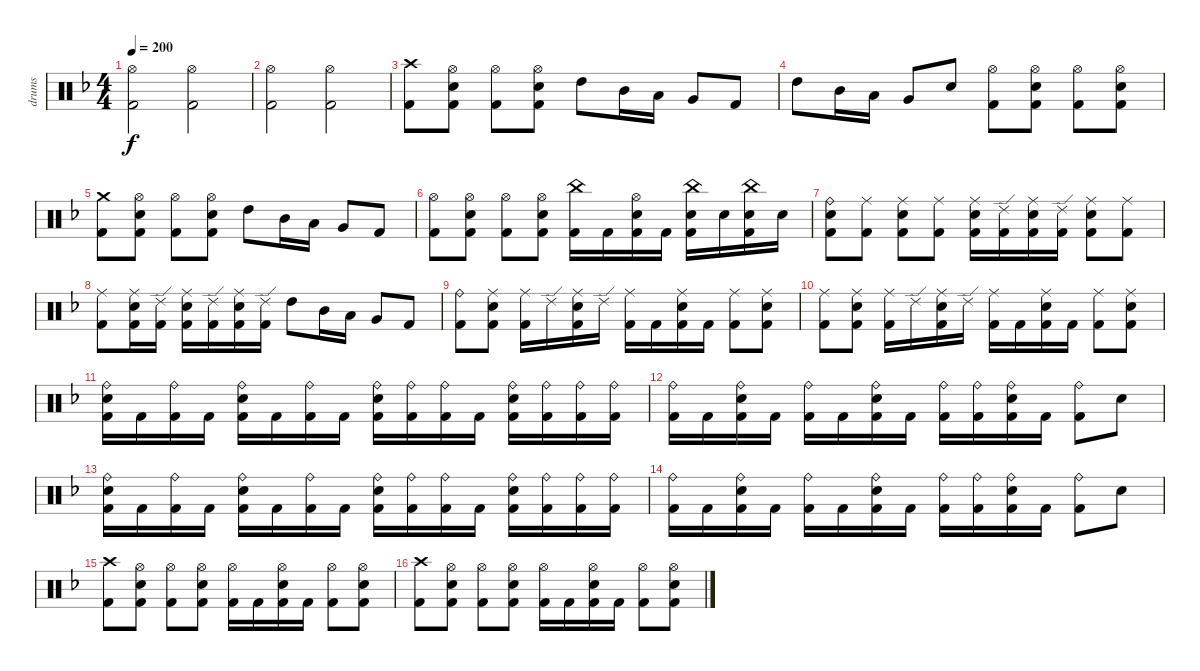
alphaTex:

\track ("drums" "drums") {instrument percussion}
\staff {score}
\articulation defaults
\ts (4 4)
\tempo 200
\clef neutral
\ks dminor
("Hi-Hat (open)" "Kick (hit) 2").2{dy f} ("Hi-Hat (open)" "Kick (hit) 2").2 |
("Hi-Hat (open)" "Kick (hit) 2").2 ("Hi-Hat (open)" "Kick (hit) 2").2 |
("Crash high (hit)" "Kick (hit) 2").8 ("Hi-Hat (open)" "Electric Snare (hit)" "Kick (hit) 2").8 ("Hi-Hat (open)" "Kick (hit) 2").8 ("Hi-Hat (open)" "Electric Snare (hit)" "Kick (hit) 2").8 "High Tom (hit)".8 "Mid Tom (hit)".16 "Low Tom (hit)".16 "Very Low Tom (hit)".8 "Kick (hit) 2".8 |
"High Tom (hit)".8 "Mid Tom (hit)".16 "Low Tom (hit)".16 "Very Low Tom (hit)".8 "Electric Snare (hit)".8 ("Hi-Hat (open)" "Kick (hit) 2").8 ("Hi-Hat (open)" "Electric Snare (hit)" "Kick (hit) 2").8 ("Hi-Hat (open)" "Kick (hit) 2").8 ("Hi-Hat (open)" "Electric Snare (hit)" "Kick (hit) 2").8 |
("Crash medium (hit)" "Kick (hit) 2").8 ("Hi-Hat (open)" "Electric Snare (hit)" "Kick (hit) 2").8 ("Hi-Hat (open)" "Kick (hit) 2").8 ("Hi-Hat (open)" "Electric Snare (hit)" "Kick (hit) 2").8 "High Tom (hit)".8 "Mid Tom (hit)".16 "Low Tom (hit)".16 "Very Low Tom (hit)".8 "Kick (hit) 2".8 |
("Hi-Hat (open)" "Kick (hit) 2").8 ("Hi-Hat (open)" "Electric Snare (hit)" "Kick (hit) 2").8 ("Hi-Hat (open)" "Kick (hit) 2").8 ("Hi-Hat (open)" "Electric Snare (hit)" "Kick (hit) 2").8 ("China (hit)" "Kick (hit) 2").16 "Kick (hit) 2".16 ("Hi-Hat (open)" "Electric Snare (hit)" "Kick (hit) 2").16 "Kick (hit) 2".16 ("China (hit)" "Electric Snare (hit)" "Kick (hit) 2").16 "Electric Snare (hit)".16 ("China (hit)" "Electric Snare (hit)" "Kick (hit) 2").16 "Electric Snare (hit)".16 |
("Ride (bell)" "Electric Snare (hit)" "Kick (hit) 2").8 ("Ride (middle)" "Kick (hit) 2").8 ("Ride (middle)" "Electric Snare (hit)" "Kick (hit) 2").8 ("Ride (middle)" "Kick (hit) 2").8 ("Ride (middle)" "Electric Snare (hit)" "Kick (hit) 2").16 ("Ride (edge) 2" "Kick (hit) 2").16 ("Ride (middle)" "Electric Snare (hit)" "Kick (hit) 2").16 ("Ride (edge) 2" "Kick (hit) 2").16 ("Ride (middle)" "Electric Snare (hit)" "Kick (hit) 2").8 ("Ride (middle)" "Kick (hit) 2").8 |
("Ride (middle)" "Kick (hit) 2").8 ("Ride (middle)" "Electric Snare (hit)" "Kick (hit) 2").16 ("Ride (edge) 2" "Kick (hit) 2").16 ("Ride (middle)" "Electric Snare (hit)" "Kick (hit) 2").16 ("Ride (edge) 2" "Kick (hit) 2").16 ("Ride (middle)" "Electric Snare (hit)" "Kick (hit) 2").16 ("Ride (edge) 2" "Kick (hit) 2").16 "High Tom (hit)".8 "Mid Tom (hit)".16 "Low Tom (hit)".16 "Very Low Tom (hit)".8 "Kick (hit) 2".8 |
("Ride (bell)" "Kick (hit) 2").8 ("Ride (middle)" "Electric Snare (hit)" "Kick (hit) 2").8 ("Ride (middle)" "Kick (hit) 2").16 "Ride (edge) 2".16 ("Ride (middle)" "Electric Snare (hit)" "Kick (hit) 2").16 "Ride (edge) 2".16 ("Ride (middle)" "Kick (hit) 2").16 "Kick (hit) 2".16 ("Ride (middle)" "Electric Snare (hit)" "Kick (hit) 2").16 "Kick (hit) 2".16 ("Ride (middle)" "Kick (hit) 2").8 ("Ride (middle)" "Electric Snare (hit)" "Kick (hit) 2").8 |
("Ride (middle)" "Kick (hit) 2").8 ("Ride (middle)" "Electric Snare (hit)" "Kick (hit) 2").8 ("Ride (middle)" "Kick (hit) 2").16 "Ride (edge) 2".16 ("Ride (middle)" "Electric Snare (hit)" "Kick (hit) 2").16 "Ride (edge) 2".16 ("Ride (middle)" "Kick (hit) 2").16 "Kick (hit) 2".16 ("Ride (middle)" "Electric Snare (hit)" "Kick (hit) 2").16 "Kick (hit) 2".16 ("Ride (middle)" "Kick (hit) 2").8 ("Ride (middle)" "Electric Snare (hit)" "Kick (hit) 2").8 |
("Ride (bell)" "Electric Snare (hit)" "Kick (hit) 2").16 "Kick (hit) 2".16 ("Ride (bell)" "Kick (hit) 2").16 "Kick (hit) 2".16 ("Ride (bell)" "Electric Snare (hit)" "Kick (hit) 2").16 "Kick (hit) 2".16 ("Ride (bell)" "Kick (hit) 2").16 "Kick (hit) 2".16 ("Ride (bell)" "Electric Snare (hit)" "Kick (hit) 2").16 ("Ride (bell)" "Kick (hit) 2").16 ("Ride (bell)" "Kick (hit) 2").16 "Kick (hit) 2".16 ("Ride (bell)" "Electric Snare (hit)" "Kick (hit) 2").16 ("Ride (bell)" "Kick (hit) 2").16 ("Ride (bell)" "Kick (hit) 2").16 ("Ride (bell)" "Kick (hit) 2").16 |
("Ride (bell)" "Kick (hit) 2").16 "Kick (hit) 2".16 ("Ride (bell)" "Electric Snare (hit)" "Kick (hit) 2").16 "Kick (hit) 2".16 ("Ride (bell)" "Kick (hit) 2").16 "Kick (hit) 2".16 ("Ride (bell)" "Electric Snare (hit)" "Kick (hit) 2").16 "Kick (hit) 2".16 ("Ride (bell)" "Kick (hit) 2").16 ("Ride (bell)" "Kick (hit) 2").16 ("Ride (bell)" "Electric Snare (hit)" "Kick (hit) 2").16 "Kick (hit) 2".16 ("Ride (bell)" "Kick (hit) 2").8 "Electric Snare (hit)".8 |
("Ride (bell)" "Electric Snare (hit)" "Kick (hit) 2").16 "Kick (hit) 2".16 ("Ride (bell)" "Kick (hit) 2").16 "Kick (hit) 2".16 ("Ride (bell)" "Electric Snare (hit)" "Kick (hit) 2").16 "Kick (hit) 2".16 ("Ride (bell)" "Kick (hit) 2").16 "Kick (hit) 2".16 ("Ride (bell)" "Electric Snare (hit)" "Kick (hit) 2").16 ("Ride (bell)" "Kick (hit) 2").16 ("Ride (bell)" "Kick (hit) 2").16 "Kick (hit) 2".16 ("Ride (bell)" "Electric Snare (hit)" "Kick (hit) 2").16 ("Ride (bell)" "Kick (hit) 2").16 ("Ride (bell)" "Kick (hit) 2").16 ("Ride (bell)" "Kick (hit) 2").16 |
("Ride (bell)" "Kick (hit) 2").16 "Kick (hit) 2".16 ("Ride (bell)" "Electric Snare (hit)" "Kick (hit) 2").16 "Kick (hit) 2".16 ("Ride (bell)" "Kick (hit) 2").16 "Kick (hit) 2".16 ("Ride (bell)" "Electric Snare (hit)" "Kick (hit) 2").16 "Kick (hit) 2".16 ("Ride (bell)" "Kick (hit) 2").16 ("Ride (bell)" "Kick (hit) 2").16 ("Ride (bell)" "Electric Snare (hit)" "Kick (hit) 2").16 "Kick (hit) 2".16 ("Ride (bell)" "Kick (hit) 2").8 "Electric Snare (hit)".8 |
("Crash high (hit)" "Kick (hit) 2").8 ("Hi-Hat (open)" "Electric Snare (hit)" "Kick (hit) 2").8 ("Hi-Hat (open)" "Kick (hit) 2").8 ("Hi-Hat (open)" "Electric Snare (hit)" "Kick (hit) 2").8 ("Hi-Hat (open)" "Kick (hit) 2").16 "Kick (hit) 2".16 ("Hi-Hat (open)" "Electric Snare (hit)" "Kick (hit) 2").16 "Kick (hit) 2".16 ("Hi-Hat (open)" "Kick (hit) 2").8 ("Hi-Hat (open)" "Electric Snare (hit)" "Kick (hit) 2").8 |
("Crash high (hit)" "Kick (hit) 2").8 ("Hi-Hat (open)" "Electric Snare (hit)" "Kick (hit) 2").8 ("Hi-Hat (open)" "Kick (hit) 2").8 ("Hi-Hat (open)" "Electric Snare (hit)" "Kick (hit) 2").8 ("Hi-Hat (open)" "Kick (hit) 2").16 "Kick (hit) 2".16 ("Hi-Hat (open)" "Electric Snare (hit)" "Kick (hit) 2").16 "Kick (hit) 2".16 ("Hi-Hat (open)" "Kick (hit) 2").8 ("Hi-Hat (open)" "Electric Snare (hit)" "Kick (hit) 2").8
